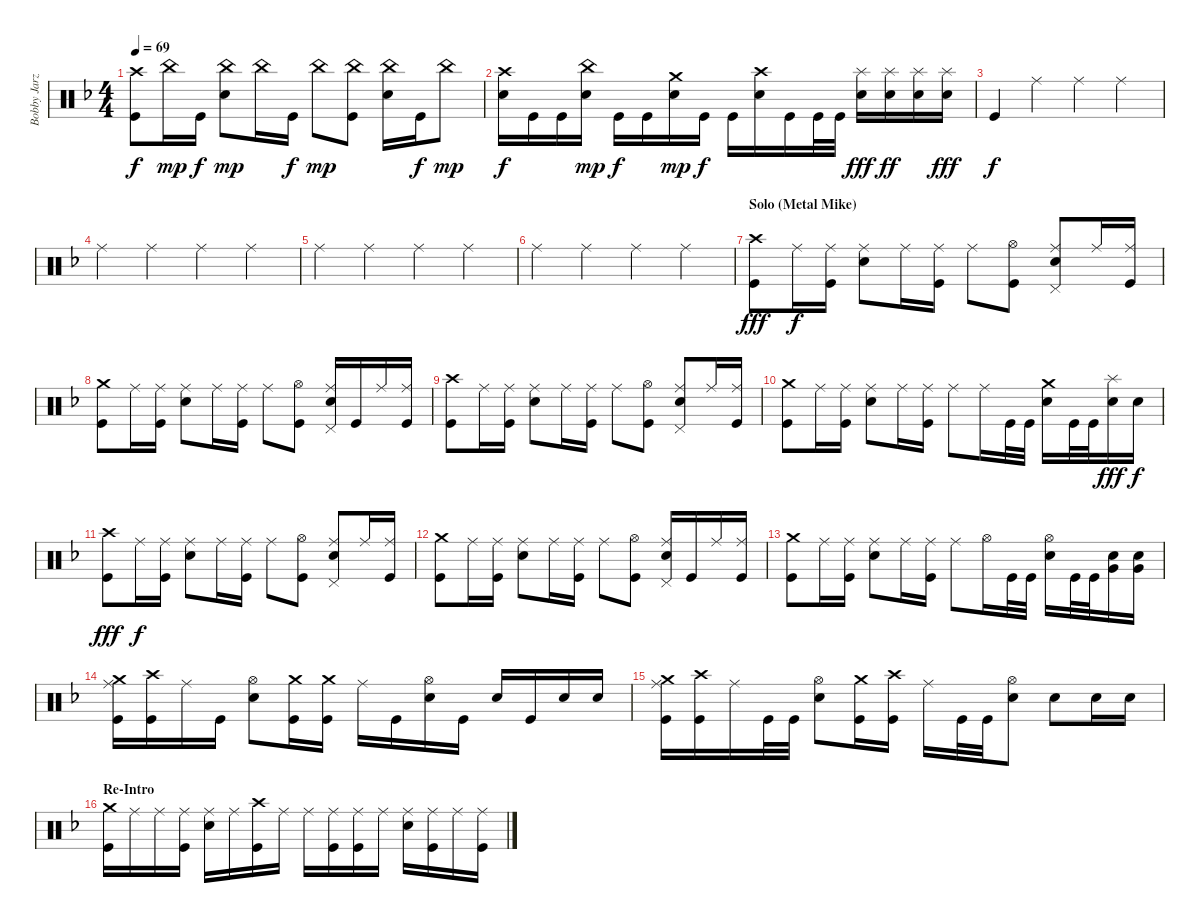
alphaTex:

\track ("Bobby Jarzombek" "Bobby Jarz") {instrument percussion}
\staff {score}
\articulation defaults
\ts (4 4)
\tempo 69
\clef neutral
\ks dminor
("Crash high (hit)" "Kick (hit)").8{dy f} "China (hit)".16{dy mp} "Kick (hit)".16{dy f} ("China (hit)" "Electric Snare (hit)").8{dy mp} "China (hit)".16 "Kick (hit)".16{dy f} "China (hit)".8{dy mp} ("China (hit)" "Kick (hit)").8 ("China (hit)" "Electric Snare (hit)").16 "Kick (hit)".16{dy f} "China (hit)".8{dy mp} |
("Crash high (hit)" "Electric Snare (hit)").16{dy f} "Kick (hit)".16 "Kick (hit)".16 ("China (hit)" "Electric Snare (hit)").16{dy mp} "Kick (hit)".16{dy f} "Kick (hit)".16 ("Crash medium (hit)" "Electric Snare (hit)").16{dy mp} "Kick (hit)".16{dy f} "Kick (hit)".16 ("Crash high (hit)" "Electric Snare (hit)").16 "Kick (hit)".16 "Kick (hit)".32 "Kick (hit)".32 ("Splash (hit)" "Electric Snare (hit)").16{dy fff} ("Splash (hit)" "Electric Snare (hit)").16{dy ff} ("Splash (hit)" "Electric Snare (hit)").16 ("Splash (hit)" "Electric Snare (hit)").16{dy fff} |
"Kick (hit)".4{dy f} "Ride (middle)".4 "Ride (middle)".4 "Ride (middle)".4 |
"Ride (middle)".4 "Ride (middle)".4 "Ride (middle)".4 "Ride (middle)".4 |
"Ride (middle)".4 "Ride (middle)".4 "Ride (middle)".4 "Ride (middle)".4 |
"Ride (middle)".4 "Ride (middle)".4 "Ride (middle)".4 "Ride (middle)".4 |
\section ("" "Solo (Metal Mike)")
("Crash high (hit)" "Kick (hit)").8{dy fff} "Ride (middle)".16{dy f} ("Ride (middle)" "Kick (hit)").16 ("Ride (middle)" "Electric Snare (hit)").8 "Ride (middle)".16 ("Ride (middle)" "Kick (hit)").16 "Ride (middle)".8 ("Hi-Hat (open)" "Kick (hit)").8 ("Ride (middle)" "Electric Snare (hit)" "Pedal Hi-Hat (hit)").8 "Ride (middle)".16 ("Ride (middle)" "Kick (hit)").16 |
("Crash medium (hit)" "Kick (hit)").8 "Ride (middle)".16 ("Ride (middle)" "Kick (hit)").16 ("Ride (middle)" "Electric Snare (hit)").8 "Ride (middle)".16 ("Ride (middle)" "Kick (hit)").16 "Ride (middle)".8 ("Hi-Hat (open)" "Kick (hit)").8 ("Ride (middle)" "Electric Snare (hit)" "Pedal Hi-Hat (hit)").16 "Kick (hit)".16 "Ride (middle)".16 ("Ride (middle)" "Kick (hit)").16 |
("Crash high (hit)" "Kick (hit)").8 "Ride (middle)".16 ("Ride (middle)" "Kick (hit)").16 ("Ride (middle)" "Electric Snare (hit)").8 "Ride (middle)".16 ("Ride (middle)" "Kick (hit)").16 "Ride (middle)".8 ("Hi-Hat (open)" "Kick (hit)").8 ("Ride (middle)" "Electric Snare (hit)" "Pedal Hi-Hat (hit)").8 "Ride (middle)".16 ("Ride (middle)" "Kick (hit)").16 |
("Crash medium (hit)" "Kick (hit)").8 "Ride (middle)".16 ("Ride (middle)" "Kick (hit)").16 ("Ride (middle)" "Electric Snare (hit)").8 "Ride (middle)".16 ("Ride (middle)" "Kick (hit)").16 "Ride (middle)".8 "Ride (middle)".16 "Kick (hit)".32 "Kick (hit)".32 ("Crash medium (hit)" "Electric Snare (hit)").16 "Kick (hit)".32 "Kick (hit)".32 ("Splash (hit)" "Electric Snare (hit)").16{dy fff} "Electric Snare (hit)".16{dy f} |
("Crash high (hit)" "Kick (hit)").8{dy fff} "Ride (middle)".16{dy f} ("Ride (middle)" "Kick (hit)").16 ("Ride (middle)" "Electric Snare (hit)").8 "Ride (middle)".16 ("Ride (middle)" "Kick (hit)").16 "Ride (middle)".8 ("Hi-Hat (open)" "Kick (hit)").8 ("Ride (middle)" "Electric Snare (hit)" "Pedal Hi-Hat (hit)").8 "Ride (middle)".16 ("Ride (middle)" "Kick (hit)").16 |
("Crash medium (hit)" "Kick (hit)").8 "Ride (middle)".16 ("Ride (middle)" "Kick (hit)").16 ("Ride (middle)" "Electric Snare (hit)").8 "Ride (middle)".16 ("Ride (middle)" "Kick (hit)").16 "Ride (middle)".8 ("Hi-Hat (open)" "Kick (hit)").8 ("Ride (middle)" "Electric Snare (hit)" "Pedal Hi-Hat (hit)").16 "Kick (hit)".16 "Ride (middle)".16 ("Ride (middle)" "Kick (hit)").16 |
("Crash medium (hit)" "Kick (hit)").8 "Ride (middle)".16 ("Ride (middle)" "Kick (hit)").16 ("Ride (middle)" "Electric Snare (hit)").8 "Ride (middle)".16 ("Ride (middle)" "Kick (hit)").16 "Ride (middle)".8 "Hi-Hat (open)".16 "Kick (hit)".32 "Kick (hit)".32 ("Hi-Hat (open)" "Electric Snare (hit)").16 "Kick (hit)".32 "Kick (hit)".32 ("Very Low Tom (hit)" "Electric Snare (hit)").16 ("Very Low Tom (hit)" "Electric Snare (hit)").16 |
("Crash medium (hit)" "Ride (middle)" "Kick (hit)").16 ("Crash high (hit)" "Kick (hit)").16 "Ride (middle)".16 "Kick (hit)".16 ("Hi-Hat (open)" "Electric Snare (hit)").8 ("Crash medium (hit)" "Kick (hit)").16 ("Crash medium (hit)" "Kick (hit)").16 "Ride (middle)".16 "Kick (hit)".16 ("Hi-Hat (open)" "Electric Snare (hit)").16 "Kick (hit)".16 "Electric Snare (hit)".16 "Kick (hit)".16 "Electric Snare (hit)".16 "Electric Snare (hit)".16 |
("Crash medium (hit)" "Ride (middle)" "Kick (hit)").16 ("Crash high (hit)" "Kick (hit)").16 "Ride (middle)".16 "Kick (hit)".32 "Kick (hit)".32 ("Hi-Hat (open)" "Electric Snare (hit)").8 ("Crash medium (hit)" "Kick (hit)").16 ("Crash high (hit)" "Kick (hit)").16 "Ride (middle)".16 "Kick (hit)".32 "Kick (hit)".32 ("Hi-Hat (open)" "Electric Snare (hit)").8 "Electric Snare (hit)".8 "Electric Snare (hit)".16 "Electric Snare (hit)".16 |
\section ("" "Re-Intro")
("Crash medium (hit)" "Kick (hit)").16 "Ride (middle)".16 "Ride (middle)".16 ("Ride (middle)" "Kick (hit)").16 ("Ride (middle)" "Electric Snare (hit)").16 "Ride (middle)".16 ("Crash high (hit)" "Kick (hit)").16 "Ride (middle)".16 "Ride (middle)".16 ("Ride (middle)" "Kick (hit)").16 ("Ride (middle)" "Kick (hit)").16 "Ride (middle)".16 ("Ride (middle)" "Electric Snare (hit)").16 ("Ride (middle)" "Kick (hit)").16 "Ride (middle)".16 ("Ride (middle)" "Kick (hit)").16
